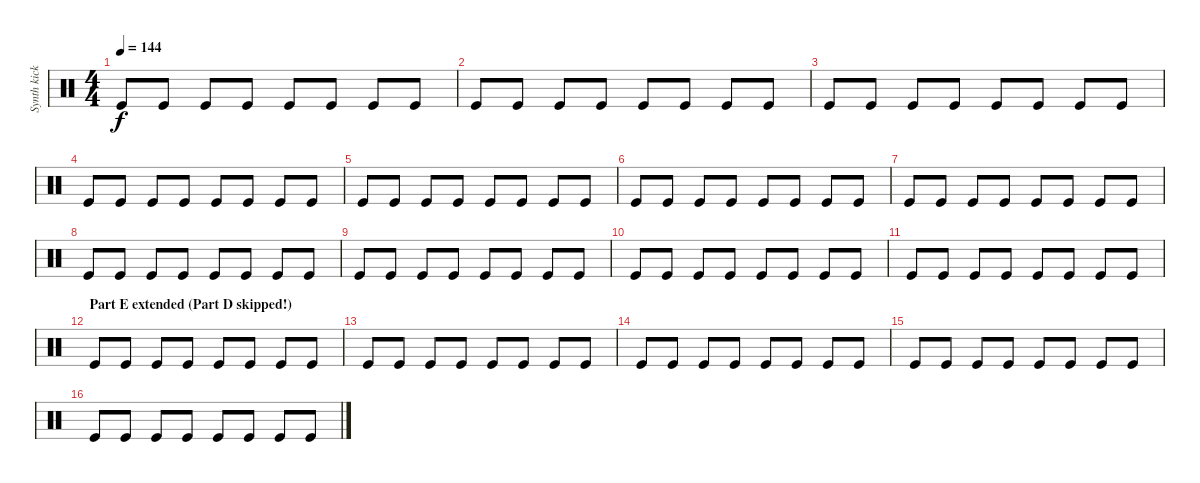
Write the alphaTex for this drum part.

\track ("Synth kick loop" "Synth kick") {instrument percussion}
\staff {score}
\articulation defaults
\ts (4 4)
\tempo 144
\clef neutral
\ks c "Kick (hit)".8{dy f} "Kick (hit)".8 "Kick (hit)".8 "Kick (hit)".8 "Kick (hit)".8 "Kick (hit)".8 "Kick (hit)".8 "Kick (hit)".8
|
"Kick (hit)".8 "Kick (hit)".8 "Kick (hit)".8 "Kick (hit)".8 "Kick (hit)".8 "Kick (hit)".8 "Kick (hit)".8 "Kick (hit)".8 |
"Kick (hit)".8 "Kick (hit)".8 "Kick (hit)".8 "Kick (hit)".8 "Kick (hit)".8 "Kick (hit)".8 "Kick (hit)".8 "Kick (hit)".8 |
"Kick (hit)".8 "Kick (hit)".8 "Kick (hit)".8 "Kick (hit)".8 "Kick (hit)".8 "Kick (hit)".8 "Kick (hit)".8 "Kick (hit)".8 |
"Kick (hit)".8 "Kick (hit)".8 "Kick (hit)".8 "Kick (hit)".8 "Kick (hit)".8 "Kick (hit)".8 "Kick (hit)".8 "Kick (hit)".8 |
"Kick (hit)".8 "Kick (hit)".8 "Kick (hit)".8 "Kick (hit)".8 "Kick (hit)".8 "Kick (hit)".8 "Kick (hit)".8 "Kick (hit)".8 |
"Kick (hit)".8 "Kick (hit)".8 "Kick (hit)".8 "Kick (hit)".8 "Kick (hit)".8 "Kick (hit)".8 "Kick (hit)".8 "Kick (hit)".8 |
"Kick (hit)".8 "Kick (hit)".8 "Kick (hit)".8 "Kick (hit)".8 "Kick (hit)".8 "Kick (hit)".8 "Kick (hit)".8 "Kick (hit)".8 |
"Kick (hit)".8 "Kick (hit)".8 "Kick (hit)".8 "Kick (hit)".8 "Kick (hit)".8 "Kick (hit)".8 "Kick (hit)".8 "Kick (hit)".8 |
"Kick (hit)".8 "Kick (hit)".8 "Kick (hit)".8 "Kick (hit)".8 "Kick (hit)".8 "Kick (hit)".8 "Kick (hit)".8 "Kick (hit)".8 |
"Kick (hit)".8 "Kick (hit)".8 "Kick (hit)".8 "Kick (hit)".8 "Kick (hit)".8 "Kick (hit)".8 "Kick (hit)".8 "Kick (hit)".8 |
\section ("" "Part E extended (Part D skipped!)")
"Kick (hit)".8 "Kick (hit)".8 "Kick (hit)".8 "Kick (hit)".8 "Kick (hit)".8 "Kick (hit)".8 "Kick (hit)".8 "Kick (hit)".8 |
"Kick (hit)".8 "Kick (hit)".8 "Kick (hit)".8 "Kick (hit)".8 "Kick (hit)".8 "Kick (hit)".8 "Kick (hit)".8 "Kick (hit)".8 |
"Kick (hit)".8 "Kick (hit)".8 "Kick (hit)".8 "Kick (hit)".8 "Kick (hit)".8 "Kick (hit)".8 "Kick (hit)".8 "Kick (hit)".8 |
"Kick (hit)".8 "Kick (hit)".8 "Kick (hit)".8 "Kick (hit)".8 "Kick (hit)".8 "Kick (hit)".8 "Kick (hit)".8 "Kick (hit)".8 |
"Kick (hit)".8 "Kick (hit)".8 "Kick (hit)".8 "Kick (hit)".8 "Kick (hit)".8 "Kick (hit)".8 "Kick (hit)".8 "Kick (hit)".8
